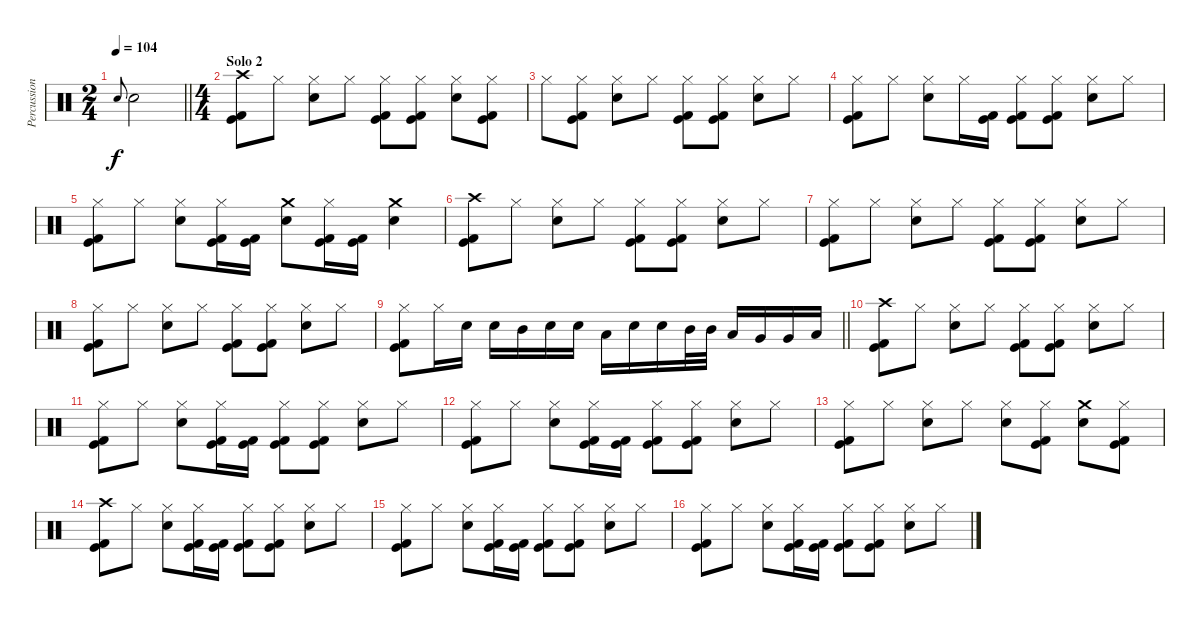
\track ("Percussion" "Percussion") {instrument percussion}
\staff {score}
\articulation defaults
\ts (2 4)
\tempo 104
\clef neutral
\barLineRight lightlight
\ks c "Electric Snare (hit)".8{gr onbeat dy f} "Electric Snare (hit)".2
|
\ts (4 4)
\section ("" "Solo 2")
("Crash high (hit)" "Kick (hit)" "Kick (hit) 2").8 "Hi-Hat (closed)".8 ("Hi-Hat (closed)" "Electric Snare (hit)").8 "Hi-Hat (closed)".8 ("Hi-Hat (closed)" "Kick (hit)" "Kick (hit) 2").8 ("Hi-Hat (closed)" "Kick (hit)" "Kick (hit) 2").8 ("Hi-Hat (closed)" "Electric Snare (hit)").8 ("Hi-Hat (closed)" "Kick (hit)" "Kick (hit) 2").8 |
"Hi-Hat (closed)".8 ("Hi-Hat (closed)" "Kick (hit)" "Kick (hit) 2").8 ("Hi-Hat (closed)" "Electric Snare (hit)").8 "Hi-Hat (closed)".8 ("Hi-Hat (closed)" "Kick (hit)" "Kick (hit) 2").8 ("Hi-Hat (closed)" "Kick (hit)" "Kick (hit) 2").8 ("Hi-Hat (closed)" "Electric Snare (hit)").8 "Hi-Hat (closed)".8 |
("Hi-Hat (closed)" "Kick (hit)" "Kick (hit) 2").8 "Hi-Hat (closed)".8 ("Hi-Hat (closed)" "Electric Snare (hit)").8 "Hi-Hat (closed)".16 ("Kick (hit)" "Kick (hit) 2").16 ("Hi-Hat (closed)" "Kick (hit)" "Kick (hit) 2").8 ("Hi-Hat (closed)" "Kick (hit)" "Kick (hit) 2").8 ("Hi-Hat (closed)" "Electric Snare (hit)").8 "Hi-Hat (closed)".8 |
("Hi-Hat (closed)" "Kick (hit)" "Kick (hit) 2").8 "Hi-Hat (closed)".8 ("Hi-Hat (closed)" "Electric Snare (hit)").8 ("Hi-Hat (closed)" "Kick (hit)" "Kick (hit) 2").16 ("Kick (hit)" "Kick (hit) 2").16 ("Crash medium (hit)" "Electric Snare (hit)").8 ("Hi-Hat (closed)" "Kick (hit)" "Kick (hit) 2").16 ("Kick (hit)" "Kick (hit) 2").16 ("Crash medium (hit)" "Electric Snare (hit)").4 |
("Crash high (hit)" "Kick (hit)" "Kick (hit) 2").8 "Hi-Hat (closed)".8 ("Hi-Hat (closed)" "Electric Snare (hit)").8 "Hi-Hat (closed)".8 ("Hi-Hat (closed)" "Kick (hit)" "Kick (hit) 2").8 ("Hi-Hat (closed)" "Kick (hit)" "Kick (hit) 2").8 ("Hi-Hat (closed)" "Electric Snare (hit)").8 "Hi-Hat (closed)".8 |
("Hi-Hat (closed)" "Kick (hit)" "Kick (hit) 2").8 "Hi-Hat (closed)".8 ("Hi-Hat (closed)" "Electric Snare (hit)").8 "Hi-Hat (closed)".8 ("Hi-Hat (closed)" "Kick (hit)" "Kick (hit) 2").8 ("Hi-Hat (closed)" "Kick (hit)" "Kick (hit) 2").8 ("Hi-Hat (closed)" "Electric Snare (hit)").8 "Hi-Hat (closed)".8 |
("Hi-Hat (closed)" "Kick (hit)" "Kick (hit) 2").8 "Hi-Hat (closed)".8 ("Hi-Hat (closed)" "Electric Snare (hit)").8 "Hi-Hat (closed)".8 ("Hi-Hat (closed)" "Kick (hit)" "Kick (hit) 2").8 ("Hi-Hat (closed)" "Kick (hit)" "Kick (hit) 2").8 ("Hi-Hat (closed)" "Electric Snare (hit)").8 "Hi-Hat (closed)".8 |
\barLineRight lightlight
("Hi-Hat (closed)" "Kick (hit)" "Kick (hit) 2").8 "Hi-Hat (closed)".16 "Electric Snare (hit)".16 "Electric Snare (hit)".16 "Mid Tom (hit)".16 "Electric Snare (hit)".16 "Electric Snare (hit)".16 "Low Tom (hit)".16 "Electric Snare (hit)".16 "Electric Snare (hit)".16 "Mid Tom (hit)".32 "Mid Tom (hit)".32 "Low Tom (hit)".16 "Very Low Tom (hit)".16 "Very Low Tom (hit)".16 "Low Floor Tom (hit)".16 |
\section ("" "")
("Crash high (hit)" "Kick (hit)" "Kick (hit) 2").8 "Hi-Hat (closed)".8 ("Hi-Hat (closed)" "Electric Snare (hit)").8 "Hi-Hat (closed)".8 ("Hi-Hat (closed)" "Kick (hit)" "Kick (hit) 2").8 ("Hi-Hat (closed)" "Kick (hit)" "Kick (hit) 2").8 ("Hi-Hat (closed)" "Electric Snare (hit)").8 "Hi-Hat (closed)".8 |
("Hi-Hat (closed)" "Kick (hit)" "Kick (hit) 2").8 "Hi-Hat (closed)".8 ("Hi-Hat (closed)" "Electric Snare (hit)").8 ("Hi-Hat (closed)" "Kick (hit)" "Kick (hit) 2").16 ("Kick (hit)" "Kick (hit) 2").16 ("Hi-Hat (closed)" "Kick (hit)" "Kick (hit) 2").8 ("Hi-Hat (closed)" "Kick (hit)" "Kick (hit) 2").8 ("Hi-Hat (closed)" "Electric Snare (hit)").8 "Hi-Hat (closed)".8 |
("Hi-Hat (closed)" "Kick (hit)" "Kick (hit) 2").8 "Hi-Hat (closed)".8 ("Hi-Hat (closed)" "Electric Snare (hit)").8 ("Hi-Hat (closed)" "Kick (hit)" "Kick (hit) 2").16 ("Kick (hit)" "Kick (hit) 2").16 ("Hi-Hat (closed)" "Kick (hit)" "Kick (hit) 2").8 ("Hi-Hat (closed)" "Kick (hit)" "Kick (hit) 2").8 ("Hi-Hat (closed)" "Electric Snare (hit)").8 "Hi-Hat (closed)".8 |
("Hi-Hat (closed)" "Kick (hit)" "Kick (hit) 2").8 "Hi-Hat (closed)".8 ("Hi-Hat (closed)" "Electric Snare (hit)").8 "Hi-Hat (closed)".8 ("Hi-Hat (closed)" "Electric Snare (hit)").8 ("Hi-Hat (closed)" "Kick (hit)" "Kick (hit) 2").8 ("Crash medium (hit)" "Electric Snare (hit)").8 ("Hi-Hat (closed)" "Kick (hit)" "Kick (hit) 2").8 |
("Crash high (hit)" "Kick (hit)" "Kick (hit) 2").8 "Hi-Hat (closed)".8 ("Hi-Hat (closed)" "Electric Snare (hit)").8 ("Hi-Hat (closed)" "Kick (hit)" "Kick (hit) 2").16 ("Kick (hit)" "Kick (hit) 2").16 ("Hi-Hat (closed)" "Kick (hit)" "Kick (hit) 2").8 ("Hi-Hat (closed)" "Kick (hit)" "Kick (hit) 2").8 ("Hi-Hat (closed)" "Electric Snare (hit)").8 "Hi-Hat (closed)".8 |
("Hi-Hat (closed)" "Kick (hit)" "Kick (hit) 2").8 "Hi-Hat (closed)".8 ("Hi-Hat (closed)" "Electric Snare (hit)").8 ("Hi-Hat (closed)" "Kick (hit)" "Kick (hit) 2").16 ("Kick (hit)" "Kick (hit) 2").16 ("Hi-Hat (closed)" "Kick (hit)" "Kick (hit) 2").8 ("Hi-Hat (closed)" "Kick (hit)" "Kick (hit) 2").8 ("Hi-Hat (closed)" "Electric Snare (hit)").8 "Hi-Hat (closed)".8 |
("Hi-Hat (closed)" "Kick (hit)" "Kick (hit) 2").8 "Hi-Hat (closed)".8 ("Hi-Hat (closed)" "Electric Snare (hit)").8 ("Hi-Hat (closed)" "Kick (hit)" "Kick (hit) 2").16 ("Kick (hit)" "Kick (hit) 2").16 ("Hi-Hat (closed)" "Kick (hit)" "Kick (hit) 2").8 ("Hi-Hat (closed)" "Kick (hit)" "Kick (hit) 2").8 ("Hi-Hat (closed)" "Electric Snare (hit)").8 "Hi-Hat (closed)".8
